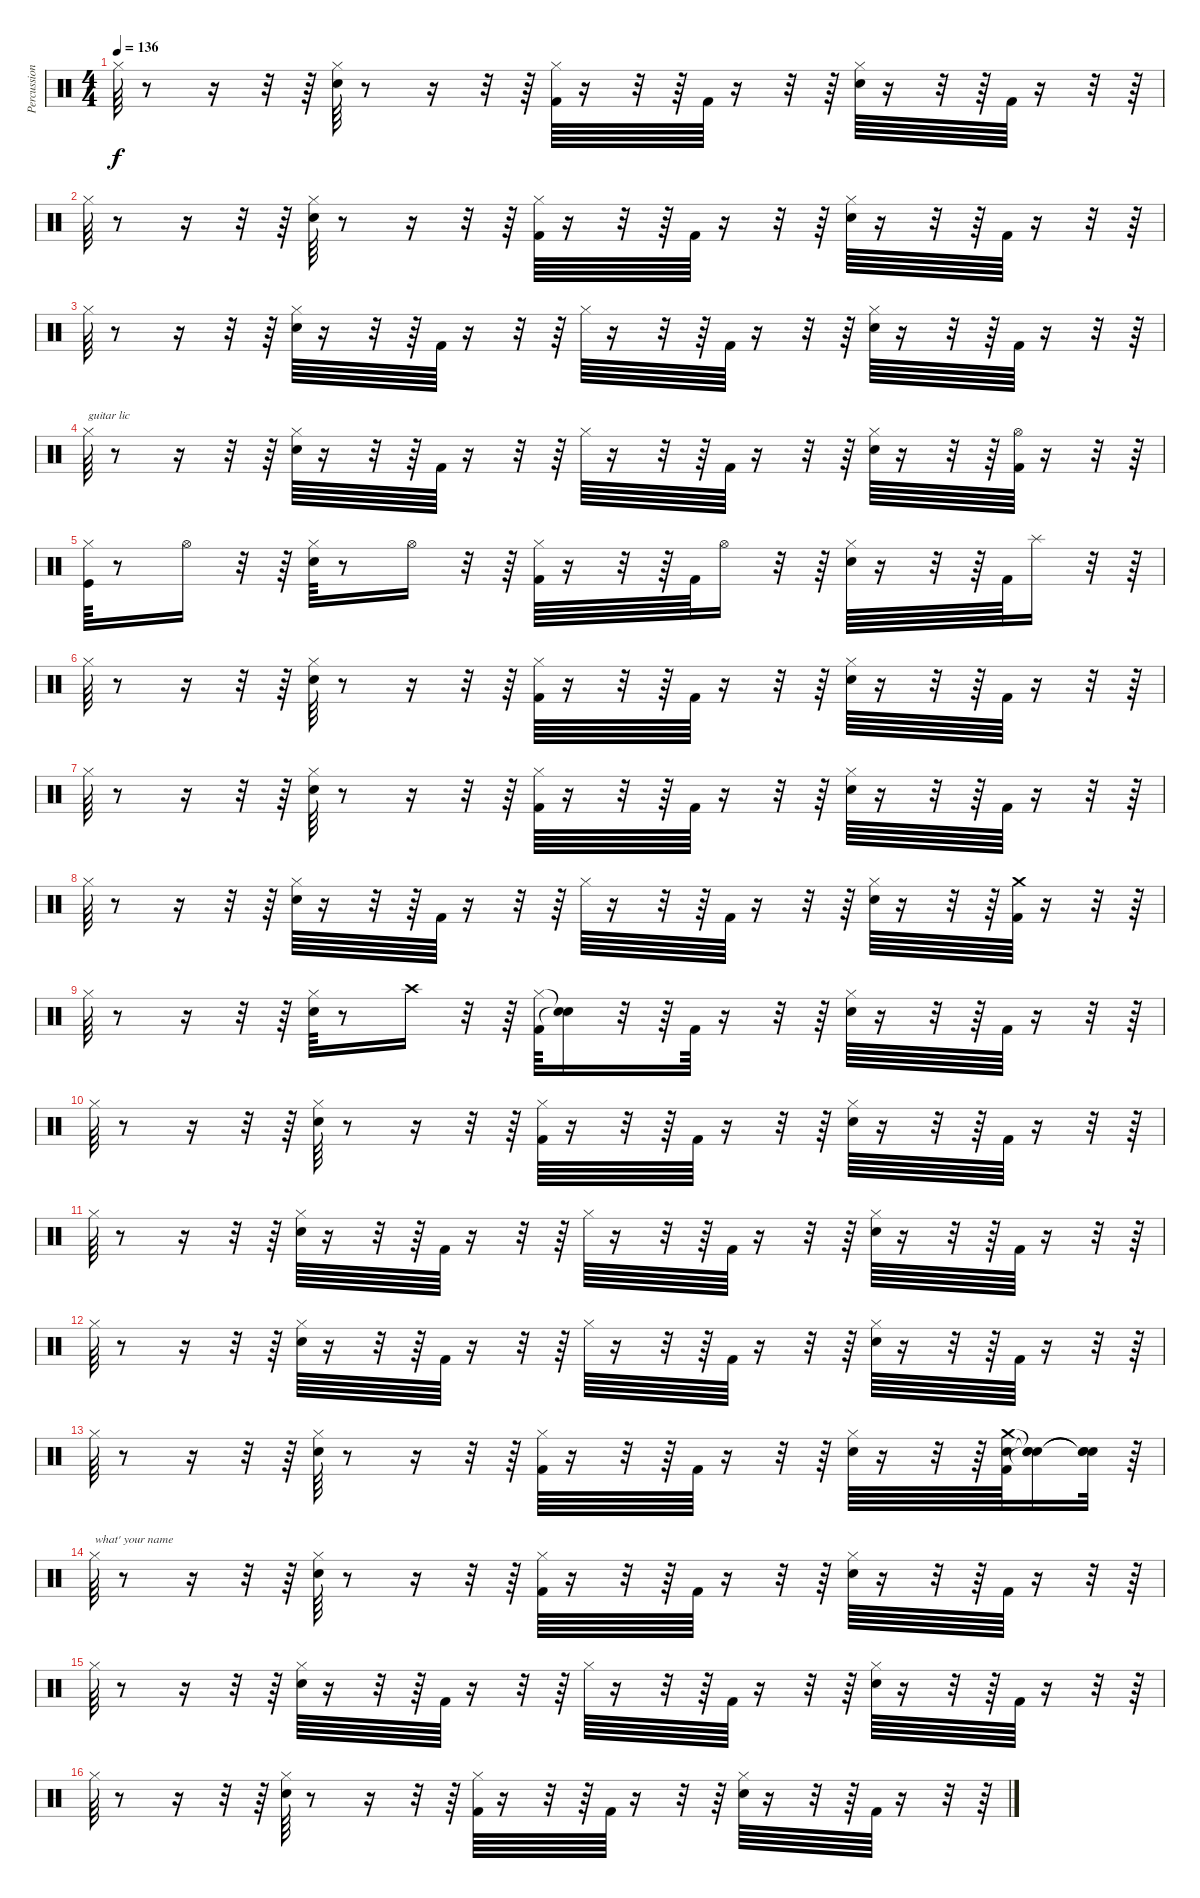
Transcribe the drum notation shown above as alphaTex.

\track ("Percussions" "Percussion") {instrument percussion}
\staff {score}
\articulation defaults
\ts (4 4)
\tempo 136
\clef neutral
\ks c "Hi-Hat (closed)".64{dy f}
r.8 r.16 r.32 r.64 ("Snare (hit) 2" "Hi-Hat (closed)").64 r.8 r.16 r.32 r.64 ("Kick (hit) 2" "Hi-Hat (closed)").64 r.16 r.32 r.64 "Kick (hit) 2".64 r.16 r.32 r.64 ("Snare (hit) 2" "Hi-Hat (closed)").64 r.16 r.32 r.64 "Kick (hit) 2".64 r.16 r.32 r.64 |
"Hi-Hat (closed)".64 r.8 r.16 r.32 r.64 ("Snare (hit) 2" "Hi-Hat (closed)").64 r.8 r.16 r.32 r.64 ("Kick (hit) 2" "Hi-Hat (closed)").64 r.16 r.32 r.64 "Kick (hit) 2".64 r.16 r.32 r.64 ("Snare (hit) 2" "Hi-Hat (closed)").64 r.16 r.32 r.64 "Kick (hit) 2".64 r.16 r.32 r.64 |
"Hi-Hat (closed)".64 r.8 r.16 r.32 r.64 ("Snare (hit) 2" "Hi-Hat (closed)").64 r.16 r.32 r.64 "Kick (hit) 2".64 r.16 r.32 r.64 "Hi-Hat (closed)".64 r.16 r.32 r.64 "Kick (hit) 2".64 r.16 r.32 r.64 ("Snare (hit) 2" "Hi-Hat (closed)").64 r.16 r.32 r.64 "Kick (hit) 2".64 r.16 r.32 r.64 |
"Hi-Hat (closed)".64{txt "guitar lic"} r.8 r.16 r.32 r.64 ("Snare (hit) 2" "Hi-Hat (closed)").64 r.16 r.32 r.64 "Kick (hit) 2".64 r.16 r.32 r.64 "Hi-Hat (closed)".64 r.16 r.32 r.64 "Kick (hit) 2".64 r.16 r.32 r.64 ("Snare (hit) 2" "Hi-Hat (closed)").64 r.16 r.32 r.64 ("Kick (hit) 2" "Hi-Hat (open)").64 r.16 r.32 r.64 |
("Kick (hit)" "Hi-Hat (closed)").64 r.8 "Hi-Hat (open)".16 r.32 r.64 ("Snare (hit) 2" "Hi-Hat (closed)").64 r.8 "Hi-Hat (open)".16 r.32 r.64 ("Kick (hit) 2" "Hi-Hat (closed)").64 r.16 r.32 r.64 "Kick (hit) 2".64 "Hi-Hat (open)".16 r.32 r.64 ("Snare (hit) 2" "Hi-Hat (closed)").64 r.16 r.32 r.64 "Kick (hit) 2".64 "Splash (hit)".16 r.32 r.64 |
"Hi-Hat (closed)".64 r.8 r.16 r.32 r.64 ("Snare (hit) 2" "Hi-Hat (closed)").64 r.8 r.16 r.32 r.64 ("Kick (hit) 2" "Hi-Hat (closed)").64 r.16 r.32 r.64 "Kick (hit) 2".64 r.16 r.32 r.64 ("Snare (hit) 2" "Hi-Hat (closed)").64 r.16 r.32 r.64 "Kick (hit) 2".64 r.16 r.32 r.64 |
"Hi-Hat (closed)".64 r.8 r.16 r.32 r.64 ("Snare (hit) 2" "Hi-Hat (closed)").64 r.8 r.16 r.32 r.64 ("Kick (hit) 2" "Hi-Hat (closed)").64 r.16 r.32 r.64 "Kick (hit) 2".64 r.16 r.32 r.64 ("Snare (hit) 2" "Hi-Hat (closed)").64 r.16 r.32 r.64 "Kick (hit) 2".64 r.16 r.32 r.64 |
"Hi-Hat (closed)".64 r.8 r.16 r.32 r.64 ("Snare (hit) 2" "Hi-Hat (closed)").64 r.16 r.32 r.64 "Kick (hit) 2".64 r.16 r.32 r.64 "Hi-Hat (closed)".64 r.16 r.32 r.64 "Kick (hit) 2".64 r.16 r.32 r.64 ("Snare (hit) 2" "Hi-Hat (closed)").64 r.16 r.32 r.64 ("Kick (hit) 2" "Crash medium (hit)").64 r.16 r.32 r.64 |
"Hi-Hat (closed)".64 r.8 r.16 r.32 r.64 ("Snare (hit) 2" "Hi-Hat (closed)").64 r.8 "Crash high (hit)".16 r.32 r.64 ("Kick (hit) 2" "Hi-Hat (closed)").64 ("Snare (hit)"{t} "Snare (hit)"{t}).16 r.32 r.64 "Kick (hit) 2".64 r.16 r.32 r.64 ("Snare (hit) 2" "Hi-Hat (closed)").64 r.16 r.32 r.64 "Kick (hit) 2".64 r.16 r.32 r.64 |
"Hi-Hat (closed)".64 r.8 r.16 r.32 r.64 ("Snare (hit) 2" "Hi-Hat (closed)").64 r.8 r.16 r.32 r.64 ("Kick (hit) 2" "Hi-Hat (closed)").64 r.16 r.32 r.64 "Kick (hit) 2".64 r.16 r.32 r.64 ("Snare (hit) 2" "Hi-Hat (closed)").64 r.16 r.32 r.64 "Kick (hit) 2".64 r.16 r.32 r.64 |
"Hi-Hat (closed)".64 r.8 r.16 r.32 r.64 ("Snare (hit) 2" "Hi-Hat (closed)").64 r.16 r.32 r.64 "Kick (hit) 2".64 r.16 r.32 r.64 "Hi-Hat (closed)".64 r.16 r.32 r.64 "Kick (hit) 2".64 r.16 r.32 r.64 ("Snare (hit) 2" "Hi-Hat (closed)").64 r.16 r.32 r.64 "Kick (hit) 2".64 r.16 r.32 r.64 |
"Hi-Hat (closed)".64 r.8 r.16 r.32 r.64 ("Snare (hit) 2" "Hi-Hat (closed)").64 r.16 r.32 r.64 "Kick (hit) 2".64 r.16 r.32 r.64 "Hi-Hat (closed)".64 r.16 r.32 r.64 "Kick (hit) 2".64 r.16 r.32 r.64 ("Snare (hit) 2" "Hi-Hat (closed)").64 r.16 r.32 r.64 "Kick (hit) 2".64 r.16 r.32 r.64 |
"Hi-Hat (closed)".64 r.8 r.16 r.32 r.64 ("Snare (hit) 2" "Hi-Hat (closed)").64 r.8 r.16 r.32 r.64 ("Kick (hit) 2" "Hi-Hat (closed)").64 r.16 r.32 r.64 "Kick (hit) 2".64 r.16 r.32 r.64 ("Snare (hit) 2" "Hi-Hat (closed)").64 r.16 r.32 r.64 ("Kick (hit) 2" "Snare (hit) 2" "Crash medium (hit)").64 ("Snare (hit)"{t} "Snare (hit)"{t} "Snare (hit)"{t}).16 ("Snare (hit)"{t} "Snare (hit)"{t} "Snare (hit)"{t}).32 r.64 |
"Hi-Hat (closed)".64{txt "what' your name"} r.8 r.16 r.32 r.64 ("Snare (hit) 2" "Hi-Hat (closed)").64 r.8 r.16 r.32 r.64 ("Kick (hit) 2" "Hi-Hat (closed)").64 r.16 r.32 r.64 "Kick (hit) 2".64 r.16 r.32 r.64 ("Snare (hit) 2" "Hi-Hat (closed)").64 r.16 r.32 r.64 "Kick (hit) 2".64 r.16 r.32 r.64 |
"Hi-Hat (closed)".64 r.8 r.16 r.32 r.64 ("Snare (hit) 2" "Hi-Hat (closed)").64 r.16 r.32 r.64 "Kick (hit) 2".64 r.16 r.32 r.64 "Hi-Hat (closed)".64 r.16 r.32 r.64 "Kick (hit) 2".64 r.16 r.32 r.64 ("Snare (hit) 2" "Hi-Hat (closed)").64 r.16 r.32 r.64 "Kick (hit) 2".64 r.16 r.32 r.64 |
"Hi-Hat (closed)".64 r.8 r.16 r.32 r.64 ("Snare (hit) 2" "Hi-Hat (closed)").64 r.8 r.16 r.32 r.64 ("Kick (hit) 2" "Hi-Hat (closed)").64 r.16 r.32 r.64 "Kick (hit) 2".64 r.16 r.32 r.64 ("Snare (hit) 2" "Hi-Hat (closed)").64 r.16 r.32 r.64 "Kick (hit) 2".64 r.16 r.32 r.64
